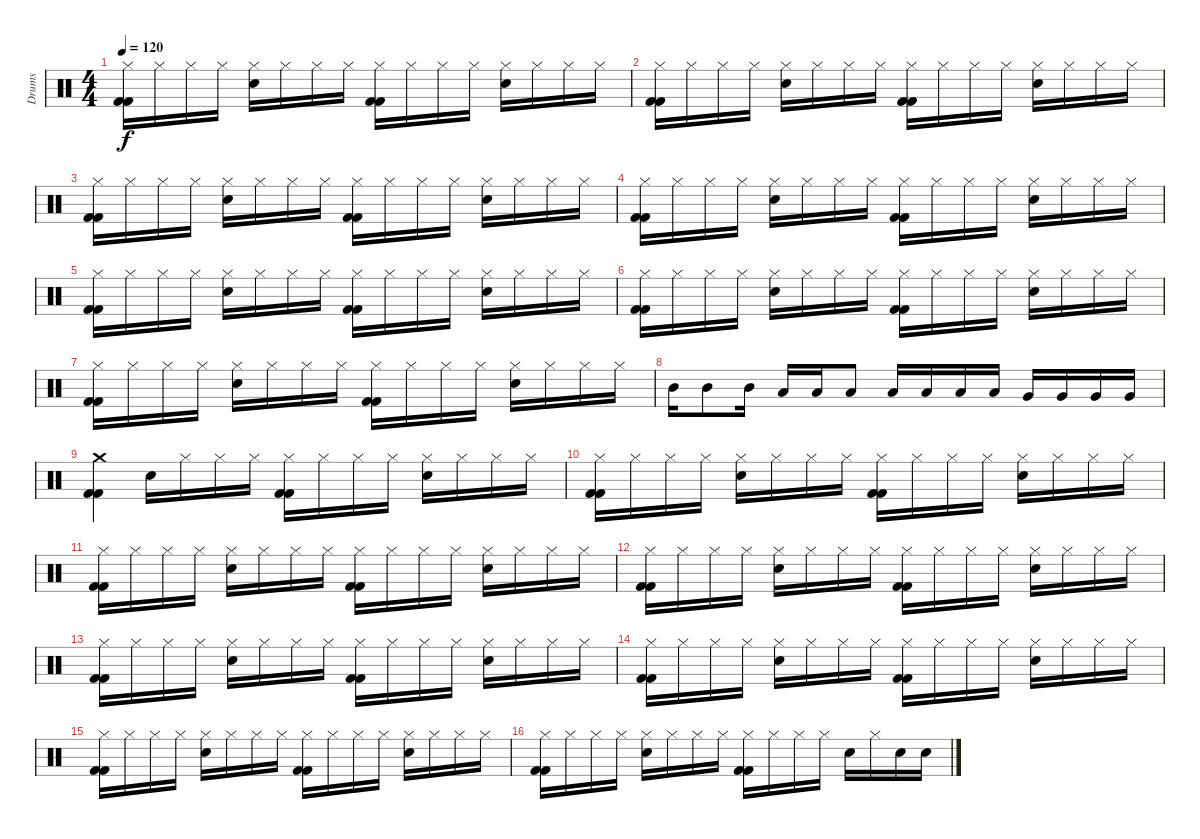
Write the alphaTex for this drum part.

\track ("Drums" "Drums") {instrument percussion}
\staff {score}
\articulation defaults
\ts (4 4)
\tempo 120
\clef neutral
\ks c
("Hi-Hat (closed)" "Kick (hit) 2" "Kick (hit) 2").16{dy f} "Hi-Hat (closed)".16 "Hi-Hat (closed)".16 "Hi-Hat (closed)".16 ("Hi-Hat (closed)" "Electric Snare (hit)").16 "Hi-Hat (closed)".16 "Hi-Hat (closed)".16 "Hi-Hat (closed)".16 ("Hi-Hat (closed)" "Kick (hit) 2" "Kick (hit) 2").16 "Hi-Hat (closed)".16 "Hi-Hat (closed)".16 "Hi-Hat (closed)".16 ("Hi-Hat (closed)" "Electric Snare (hit)").16 "Hi-Hat (closed)".16 "Hi-Hat (closed)".16 "Hi-Hat (closed)".16 |
("Hi-Hat (closed)" "Kick (hit) 2" "Kick (hit) 2").16 "Hi-Hat (closed)".16 "Hi-Hat (closed)".16 "Hi-Hat (closed)".16 ("Hi-Hat (closed)" "Electric Snare (hit)").16 "Hi-Hat (closed)".16 "Hi-Hat (closed)".16 "Hi-Hat (closed)".16 ("Hi-Hat (closed)" "Kick (hit) 2" "Kick (hit) 2").16 "Hi-Hat (closed)".16 "Hi-Hat (closed)".16 "Hi-Hat (closed)".16 ("Hi-Hat (closed)" "Electric Snare (hit)").16 "Hi-Hat (closed)".16 "Hi-Hat (closed)".16 "Hi-Hat (closed)".16 |
("Hi-Hat (closed)" "Kick (hit) 2" "Kick (hit) 2").16 "Hi-Hat (closed)".16 "Hi-Hat (closed)".16 "Hi-Hat (closed)".16 ("Hi-Hat (closed)" "Electric Snare (hit)").16 "Hi-Hat (closed)".16 "Hi-Hat (closed)".16 "Hi-Hat (closed)".16 ("Hi-Hat (closed)" "Kick (hit) 2" "Kick (hit) 2").16 "Hi-Hat (closed)".16 "Hi-Hat (closed)".16 "Hi-Hat (closed)".16 ("Hi-Hat (closed)" "Electric Snare (hit)").16 "Hi-Hat (closed)".16 "Hi-Hat (closed)".16 "Hi-Hat (closed)".16 |
("Hi-Hat (closed)" "Kick (hit) 2" "Kick (hit) 2").16 "Hi-Hat (closed)".16 "Hi-Hat (closed)".16 "Hi-Hat (closed)".16 ("Hi-Hat (closed)" "Electric Snare (hit)").16 "Hi-Hat (closed)".16 "Hi-Hat (closed)".16 "Hi-Hat (closed)".16 ("Hi-Hat (closed)" "Kick (hit) 2" "Kick (hit) 2").16 "Hi-Hat (closed)".16 "Hi-Hat (closed)".16 "Hi-Hat (closed)".16 ("Hi-Hat (closed)" "Electric Snare (hit)").16 "Hi-Hat (closed)".16 "Hi-Hat (closed)".16 "Hi-Hat (closed)".16 |
("Hi-Hat (closed)" "Kick (hit) 2" "Kick (hit) 2").16 "Hi-Hat (closed)".16 "Hi-Hat (closed)".16 "Hi-Hat (closed)".16 ("Hi-Hat (closed)" "Electric Snare (hit)").16 "Hi-Hat (closed)".16 "Hi-Hat (closed)".16 "Hi-Hat (closed)".16 ("Hi-Hat (closed)" "Kick (hit) 2" "Kick (hit) 2").16 "Hi-Hat (closed)".16 "Hi-Hat (closed)".16 "Hi-Hat (closed)".16 ("Hi-Hat (closed)" "Electric Snare (hit)").16 "Hi-Hat (closed)".16 "Hi-Hat (closed)".16 "Hi-Hat (closed)".16 |
("Hi-Hat (closed)" "Kick (hit) 2" "Kick (hit) 2").16 "Hi-Hat (closed)".16 "Hi-Hat (closed)".16 "Hi-Hat (closed)".16 ("Hi-Hat (closed)" "Electric Snare (hit)").16 "Hi-Hat (closed)".16 "Hi-Hat (closed)".16 "Hi-Hat (closed)".16 ("Hi-Hat (closed)" "Kick (hit) 2" "Kick (hit) 2").16 "Hi-Hat (closed)".16 "Hi-Hat (closed)".16 "Hi-Hat (closed)".16 ("Hi-Hat (closed)" "Electric Snare (hit)").16 "Hi-Hat (closed)".16 "Hi-Hat (closed)".16 "Hi-Hat (closed)".16 |
("Hi-Hat (closed)" "Kick (hit) 2" "Kick (hit) 2").16 "Hi-Hat (closed)".16 "Hi-Hat (closed)".16 "Hi-Hat (closed)".16 ("Hi-Hat (closed)" "Electric Snare (hit)").16 "Hi-Hat (closed)".16 "Hi-Hat (closed)".16 "Hi-Hat (closed)".16 ("Hi-Hat (closed)" "Kick (hit) 2" "Kick (hit) 2").16 "Hi-Hat (closed)".16 "Hi-Hat (closed)".16 "Hi-Hat (closed)".16 ("Hi-Hat (closed)" "Electric Snare (hit)").16 "Hi-Hat (closed)".16 "Hi-Hat (closed)".16 "Hi-Hat (closed)".16 |
"Mid Tom (hit)".16 "Mid Tom (hit)".8 "Mid Tom (hit)".16 "Low Tom (hit)".16 "Low Tom (hit)".16 "Low Tom (hit)".8 "Low Tom (hit)".16 "Low Tom (hit)".16 "Low Tom (hit)".16 "Low Tom (hit)".16 "Very Low Tom (hit)".16 "Very Low Tom (hit)".16 "Very Low Tom (hit)".16 "Very Low Tom (hit)".16 |
("Crash medium (hit)" "Kick (hit) 2" "Kick (hit) 2").4 "Electric Snare (hit)".16 "Hi-Hat (closed)".16 "Hi-Hat (closed)".16 "Hi-Hat (closed)".16 ("Hi-Hat (closed)" "Kick (hit) 2" "Kick (hit) 2").16 "Hi-Hat (closed)".16 "Hi-Hat (closed)".16 "Hi-Hat (closed)".16 ("Hi-Hat (closed)" "Electric Snare (hit)").16 "Hi-Hat (closed)".16 "Hi-Hat (closed)".16 "Hi-Hat (closed)".16 |
("Hi-Hat (closed)" "Kick (hit) 2" "Kick (hit) 2").16 "Hi-Hat (closed)".16 "Hi-Hat (closed)".16 "Hi-Hat (closed)".16 ("Hi-Hat (closed)" "Electric Snare (hit)").16 "Hi-Hat (closed)".16 "Hi-Hat (closed)".16 "Hi-Hat (closed)".16 ("Hi-Hat (closed)" "Kick (hit) 2" "Kick (hit) 2").16 "Hi-Hat (closed)".16 "Hi-Hat (closed)".16 "Hi-Hat (closed)".16 ("Hi-Hat (closed)" "Electric Snare (hit)").16 "Hi-Hat (closed)".16 "Hi-Hat (closed)".16 "Hi-Hat (closed)".16 |
("Hi-Hat (closed)" "Kick (hit) 2" "Kick (hit) 2").16 "Hi-Hat (closed)".16 "Hi-Hat (closed)".16 "Hi-Hat (closed)".16 ("Hi-Hat (closed)" "Electric Snare (hit)").16 "Hi-Hat (closed)".16 "Hi-Hat (closed)".16 "Hi-Hat (closed)".16 ("Hi-Hat (closed)" "Kick (hit) 2" "Kick (hit) 2").16 "Hi-Hat (closed)".16 "Hi-Hat (closed)".16 "Hi-Hat (closed)".16 ("Hi-Hat (closed)" "Electric Snare (hit)").16 "Hi-Hat (closed)".16 "Hi-Hat (closed)".16 "Hi-Hat (closed)".16 |
("Hi-Hat (closed)" "Kick (hit) 2" "Kick (hit) 2").16 "Hi-Hat (closed)".16 "Hi-Hat (closed)".16 "Hi-Hat (closed)".16 ("Hi-Hat (closed)" "Electric Snare (hit)").16 "Hi-Hat (closed)".16 "Hi-Hat (closed)".16 "Hi-Hat (closed)".16 ("Hi-Hat (closed)" "Kick (hit) 2" "Kick (hit) 2").16 "Hi-Hat (closed)".16 "Hi-Hat (closed)".16 "Hi-Hat (closed)".16 ("Hi-Hat (closed)" "Electric Snare (hit)").16 "Hi-Hat (closed)".16 "Hi-Hat (closed)".16 "Hi-Hat (closed)".16 |
("Hi-Hat (closed)" "Kick (hit) 2" "Kick (hit) 2").16 "Hi-Hat (closed)".16 "Hi-Hat (closed)".16 "Hi-Hat (closed)".16 ("Hi-Hat (closed)" "Electric Snare (hit)").16 "Hi-Hat (closed)".16 "Hi-Hat (closed)".16 "Hi-Hat (closed)".16 ("Hi-Hat (closed)" "Kick (hit) 2" "Kick (hit) 2").16 "Hi-Hat (closed)".16 "Hi-Hat (closed)".16 "Hi-Hat (closed)".16 ("Hi-Hat (closed)" "Electric Snare (hit)").16 "Hi-Hat (closed)".16 "Hi-Hat (closed)".16 "Hi-Hat (closed)".16 |
("Hi-Hat (closed)" "Kick (hit) 2" "Kick (hit) 2").16 "Hi-Hat (closed)".16 "Hi-Hat (closed)".16 "Hi-Hat (closed)".16 ("Hi-Hat (closed)" "Electric Snare (hit)").16 "Hi-Hat (closed)".16 "Hi-Hat (closed)".16 "Hi-Hat (closed)".16 ("Hi-Hat (closed)" "Kick (hit) 2" "Kick (hit) 2").16 "Hi-Hat (closed)".16 "Hi-Hat (closed)".16 "Hi-Hat (closed)".16 ("Hi-Hat (closed)" "Electric Snare (hit)").16 "Hi-Hat (closed)".16 "Hi-Hat (closed)".16 "Hi-Hat (closed)".16 |
("Hi-Hat (closed)" "Kick (hit) 2" "Kick (hit) 2").16 "Hi-Hat (closed)".16 "Hi-Hat (closed)".16 "Hi-Hat (closed)".16 ("Hi-Hat (closed)" "Electric Snare (hit)").16 "Hi-Hat (closed)".16 "Hi-Hat (closed)".16 "Hi-Hat (closed)".16 ("Hi-Hat (closed)" "Kick (hit) 2" "Kick (hit) 2").16 "Hi-Hat (closed)".16 "Hi-Hat (closed)".16 "Hi-Hat (closed)".16 ("Hi-Hat (closed)" "Electric Snare (hit)").16 "Hi-Hat (closed)".16 "Hi-Hat (closed)".16 "Hi-Hat (closed)".16 |
("Hi-Hat (closed)" "Kick (hit) 2" "Kick (hit) 2").16 "Hi-Hat (closed)".16 "Hi-Hat (closed)".16 "Hi-Hat (closed)".16 ("Hi-Hat (closed)" "Electric Snare (hit)").16 "Hi-Hat (closed)".16 "Hi-Hat (closed)".16 "Hi-Hat (closed)".16 ("Hi-Hat (closed)" "Kick (hit) 2" "Kick (hit) 2").16 "Hi-Hat (closed)".16 "Hi-Hat (closed)".16 "Hi-Hat (closed)".16 "Electric Snare (hit)".16 "Hi-Hat (closed)".16 "Electric Snare (hit)".16 "Electric Snare (hit)".16
